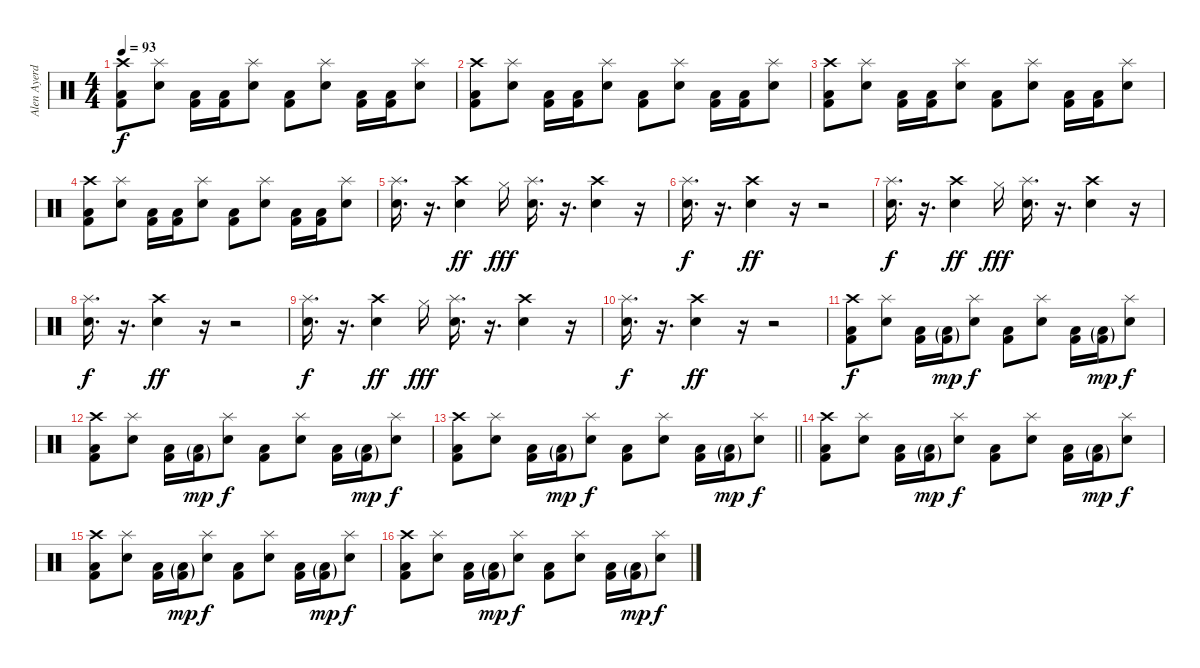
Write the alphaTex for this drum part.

\track ("Alen Ayerdi" "Alen Ayerd") {instrument percussion}
\staff {score}
\articulation defaults
\ts (4 4)
\tempo 93
\clef neutral
\ks c
("Crash high (hit)" "Low Floor Tom (hit)" "Kick (hit) 2").8{dy f} ("Splash (hit)" "Electric Snare (hit)").8 ("Low Floor Tom (hit)" "Kick (hit) 2").16 ("Low Floor Tom (hit)" "Kick (hit) 2").16 ("Splash (hit)" "Electric Snare (hit)").8 ("Low Floor Tom (hit)" "Kick (hit) 2").8 ("Splash (hit)" "Electric Snare (hit)").8 ("Low Floor Tom (hit)" "Kick (hit) 2").16 ("Low Floor Tom (hit)" "Kick (hit) 2").16 ("Splash (hit)" "Electric Snare (hit)").8 |
("Crash high (hit)" "Low Floor Tom (hit)" "Kick (hit) 2").8 ("Splash (hit)" "Electric Snare (hit)").8 ("Low Floor Tom (hit)" "Kick (hit) 2").16 ("Low Floor Tom (hit)" "Kick (hit) 2").16 ("Splash (hit)" "Electric Snare (hit)").8 ("Low Floor Tom (hit)" "Kick (hit) 2").8 ("Splash (hit)" "Electric Snare (hit)").8 ("Low Floor Tom (hit)" "Kick (hit) 2").16 ("Low Floor Tom (hit)" "Kick (hit) 2").16 ("Splash (hit)" "Electric Snare (hit)").8 |
("Crash high (hit)" "Low Floor Tom (hit)" "Kick (hit) 2").8 ("Splash (hit)" "Electric Snare (hit)").8 ("Low Floor Tom (hit)" "Kick (hit) 2").16 ("Low Floor Tom (hit)" "Kick (hit) 2").16 ("Splash (hit)" "Electric Snare (hit)").8 ("Low Floor Tom (hit)" "Kick (hit) 2").8 ("Splash (hit)" "Electric Snare (hit)").8 ("Low Floor Tom (hit)" "Kick (hit) 2").16 ("Low Floor Tom (hit)" "Kick (hit) 2").16 ("Splash (hit)" "Electric Snare (hit)").8 |
("Crash high (hit)" "Low Floor Tom (hit)" "Kick (hit) 2").8 ("Splash (hit)" "Electric Snare (hit)").8 ("Low Floor Tom (hit)" "Kick (hit) 2").16 ("Low Floor Tom (hit)" "Kick (hit) 2").16 ("Splash (hit)" "Electric Snare (hit)").8 ("Low Floor Tom (hit)" "Kick (hit) 2").8 ("Splash (hit)" "Electric Snare (hit)").8 ("Low Floor Tom (hit)" "Kick (hit) 2").16 ("Low Floor Tom (hit)" "Kick (hit) 2").16 ("Splash (hit)" "Electric Snare (hit)").8 |
("Splash (hit)" "Electric Snare (hit)").16{d} r.16{d} ("Crash high (hit)" "Electric Snare (hit)").4{dy ff} "Hi-Hat (closed)".16{dy fff} ("Splash (hit)" "Electric Snare (hit)").16{d} r.16{d} ("Crash high (hit)" "Electric Snare (hit)").4 r.16 |
("Splash (hit)" "Electric Snare (hit)").16{d dy f} r.16{d} ("Crash high (hit)" "Electric Snare (hit)").4{dy ff} r.16 r.2 |
("Splash (hit)" "Electric Snare (hit)").16{d dy f} r.16{d} ("Crash high (hit)" "Electric Snare (hit)").4{dy ff} "Hi-Hat (closed)".16{dy fff} ("Splash (hit)" "Electric Snare (hit)").16{d} r.16{d} ("Crash high (hit)" "Electric Snare (hit)").4 r.16 |
("Splash (hit)" "Electric Snare (hit)").16{d dy f} r.16{d} ("Crash high (hit)" "Electric Snare (hit)").4{dy ff} r.16 r.2 |
("Splash (hit)" "Electric Snare (hit)").16{d dy f} r.16{d} ("Crash high (hit)" "Electric Snare (hit)").4{dy ff} "Hi-Hat (closed)".16{dy fff} ("Splash (hit)" "Electric Snare (hit)").16{d} r.16{d} ("Crash high (hit)" "Electric Snare (hit)").4 r.16 |
("Splash (hit)" "Electric Snare (hit)").16{d dy f} r.16{d} ("Crash high (hit)" "Electric Snare (hit)").4{dy ff} r.16 r.2 |
("Crash high (hit)" "Low Floor Tom (hit)" "Kick (hit) 2").8{dy f} ("Splash (hit)" "Electric Snare (hit)").8 ("Low Floor Tom (hit)" "Kick (hit) 2").16 ("Low Floor Tom (hit)"{g} "Kick (hit) 2"{g}).16{dy mp} ("Splash (hit)" "Electric Snare (hit)").8{dy f} ("Low Floor Tom (hit)" "Kick (hit) 2").8 ("Splash (hit)" "Electric Snare (hit)").8 ("Low Floor Tom (hit)" "Kick (hit) 2").16 ("Low Floor Tom (hit)"{g} "Kick (hit) 2"{g}).16{dy mp} ("Splash (hit)" "Electric Snare (hit)").8{dy f} |
("Crash high (hit)" "Low Floor Tom (hit)" "Kick (hit) 2").8 ("Splash (hit)" "Electric Snare (hit)").8 ("Low Floor Tom (hit)" "Kick (hit) 2").16 ("Low Floor Tom (hit)"{g} "Kick (hit) 2"{g}).16{dy mp} ("Splash (hit)" "Electric Snare (hit)").8{dy f} ("Low Floor Tom (hit)" "Kick (hit) 2").8 ("Splash (hit)" "Electric Snare (hit)").8 ("Low Floor Tom (hit)" "Kick (hit) 2").16 ("Low Floor Tom (hit)"{g} "Kick (hit) 2"{g}).16{dy mp} ("Splash (hit)" "Electric Snare (hit)").8{dy f} |
\barLineRight lightlight
("Crash high (hit)" "Low Floor Tom (hit)" "Kick (hit) 2").8 ("Splash (hit)" "Electric Snare (hit)").8 ("Low Floor Tom (hit)" "Kick (hit) 2").16 ("Low Floor Tom (hit)"{g} "Kick (hit) 2"{g}).16{dy mp} ("Splash (hit)" "Electric Snare (hit)").8{dy f} ("Low Floor Tom (hit)" "Kick (hit) 2").8 ("Splash (hit)" "Electric Snare (hit)").8 ("Low Floor Tom (hit)" "Kick (hit) 2").16 ("Low Floor Tom (hit)"{g} "Kick (hit) 2"{g}).16{dy mp} ("Splash (hit)" "Electric Snare (hit)").8{dy f} |
("Crash high (hit)" "Low Floor Tom (hit)" "Kick (hit) 2").8 ("Splash (hit)" "Electric Snare (hit)").8 ("Low Floor Tom (hit)" "Kick (hit) 2").16 ("Low Floor Tom (hit)"{g} "Kick (hit) 2"{g}).16{dy mp} ("Splash (hit)" "Electric Snare (hit)").8{dy f} ("Low Floor Tom (hit)" "Kick (hit) 2").8 ("Splash (hit)" "Electric Snare (hit)").8 ("Low Floor Tom (hit)" "Kick (hit) 2").16 ("Low Floor Tom (hit)"{g} "Kick (hit) 2"{g}).16{dy mp} ("Splash (hit)" "Electric Snare (hit)").8{dy f} |
("Crash high (hit)" "Low Floor Tom (hit)" "Kick (hit) 2").8 ("Splash (hit)" "Electric Snare (hit)").8 ("Low Floor Tom (hit)" "Kick (hit) 2").16 ("Low Floor Tom (hit)"{g} "Kick (hit) 2"{g}).16{dy mp} ("Splash (hit)" "Electric Snare (hit)").8{dy f} ("Low Floor Tom (hit)" "Kick (hit) 2").8 ("Splash (hit)" "Electric Snare (hit)").8 ("Low Floor Tom (hit)" "Kick (hit) 2").16 ("Low Floor Tom (hit)"{g} "Kick (hit) 2"{g}).16{dy mp} ("Splash (hit)" "Electric Snare (hit)").8{dy f} |
("Crash high (hit)" "Low Floor Tom (hit)" "Kick (hit) 2").8 ("Splash (hit)" "Electric Snare (hit)").8 ("Low Floor Tom (hit)" "Kick (hit) 2").16 ("Low Floor Tom (hit)"{g} "Kick (hit) 2"{g}).16{dy mp} ("Splash (hit)" "Electric Snare (hit)").8{dy f} ("Low Floor Tom (hit)" "Kick (hit) 2").8 ("Splash (hit)" "Electric Snare (hit)").8 ("Low Floor Tom (hit)" "Kick (hit) 2").16 ("Low Floor Tom (hit)"{g} "Kick (hit) 2"{g}).16{dy mp} ("Splash (hit)" "Electric Snare (hit)").8{dy f}
